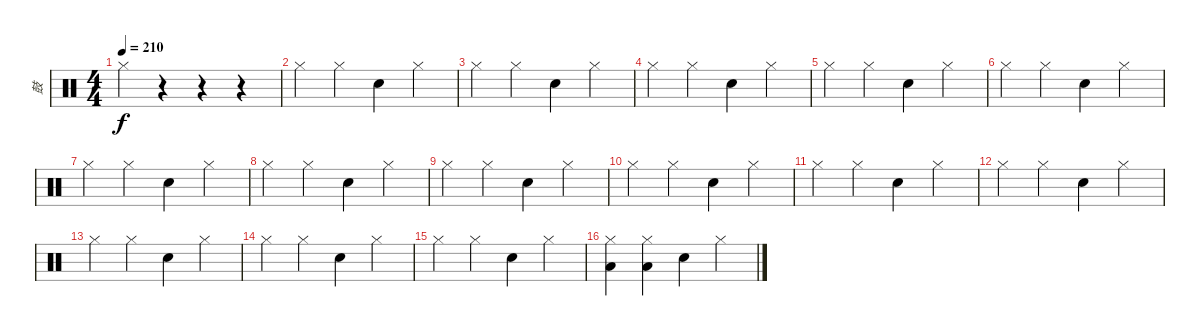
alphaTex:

\track ("鼓" "鼓") {instrument percussion}
\staff {score}
\articulation defaults
\ts (4 4)
\tempo 210
\clef neutral
\ks c "Hi-Hat (closed)".4{dy f}
r.4 r.4 r.4 |
"Hi-Hat (closed)".4 "Hi-Hat (closed)".4 "Electric Snare (hit)".4 "Hi-Hat (closed)".4 |
"Hi-Hat (closed)".4 "Hi-Hat (closed)".4 "Electric Snare (hit)".4 "Hi-Hat (closed)".4 |
"Hi-Hat (closed)".4 "Hi-Hat (closed)".4 "Electric Snare (hit)".4 "Hi-Hat (closed)".4 |
"Hi-Hat (closed)".4 "Hi-Hat (closed)".4 "Electric Snare (hit)".4 "Hi-Hat (closed)".4 |
"Hi-Hat (closed)".4 "Hi-Hat (closed)".4 "Electric Snare (hit)".4 "Hi-Hat (closed)".4 |
"Hi-Hat (closed)".4 "Hi-Hat (closed)".4 "Electric Snare (hit)".4 "Hi-Hat (closed)".4 |
"Hi-Hat (closed)".4 "Hi-Hat (closed)".4 "Electric Snare (hit)".4 "Hi-Hat (closed)".4 |
"Hi-Hat (closed)".4 "Hi-Hat (closed)".4 "Electric Snare (hit)".4 "Hi-Hat (closed)".4 |
"Hi-Hat (closed)".4 "Hi-Hat (closed)".4 "Electric Snare (hit)".4 "Hi-Hat (closed)".4 |
"Hi-Hat (closed)".4 "Hi-Hat (closed)".4 "Electric Snare (hit)".4 "Hi-Hat (closed)".4 |
"Hi-Hat (closed)".4 "Hi-Hat (closed)".4 "Electric Snare (hit)".4 "Hi-Hat (closed)".4 |
"Hi-Hat (closed)".4 "Hi-Hat (closed)".4 "Electric Snare (hit)".4 "Hi-Hat (closed)".4 |
"Hi-Hat (closed)".4 "Hi-Hat (closed)".4 "Electric Snare (hit)".4 "Hi-Hat (closed)".4 |
"Hi-Hat (closed)".4 "Hi-Hat (closed)".4 "Electric Snare (hit)".4 "Hi-Hat (closed)".4 |
("Hi-Hat (closed)" "Low Floor Tom (hit)").4 ("Hi-Hat (closed)" "Low Floor Tom (hit)").4 "Electric Snare (hit)".4 "Hi-Hat (closed)".4
